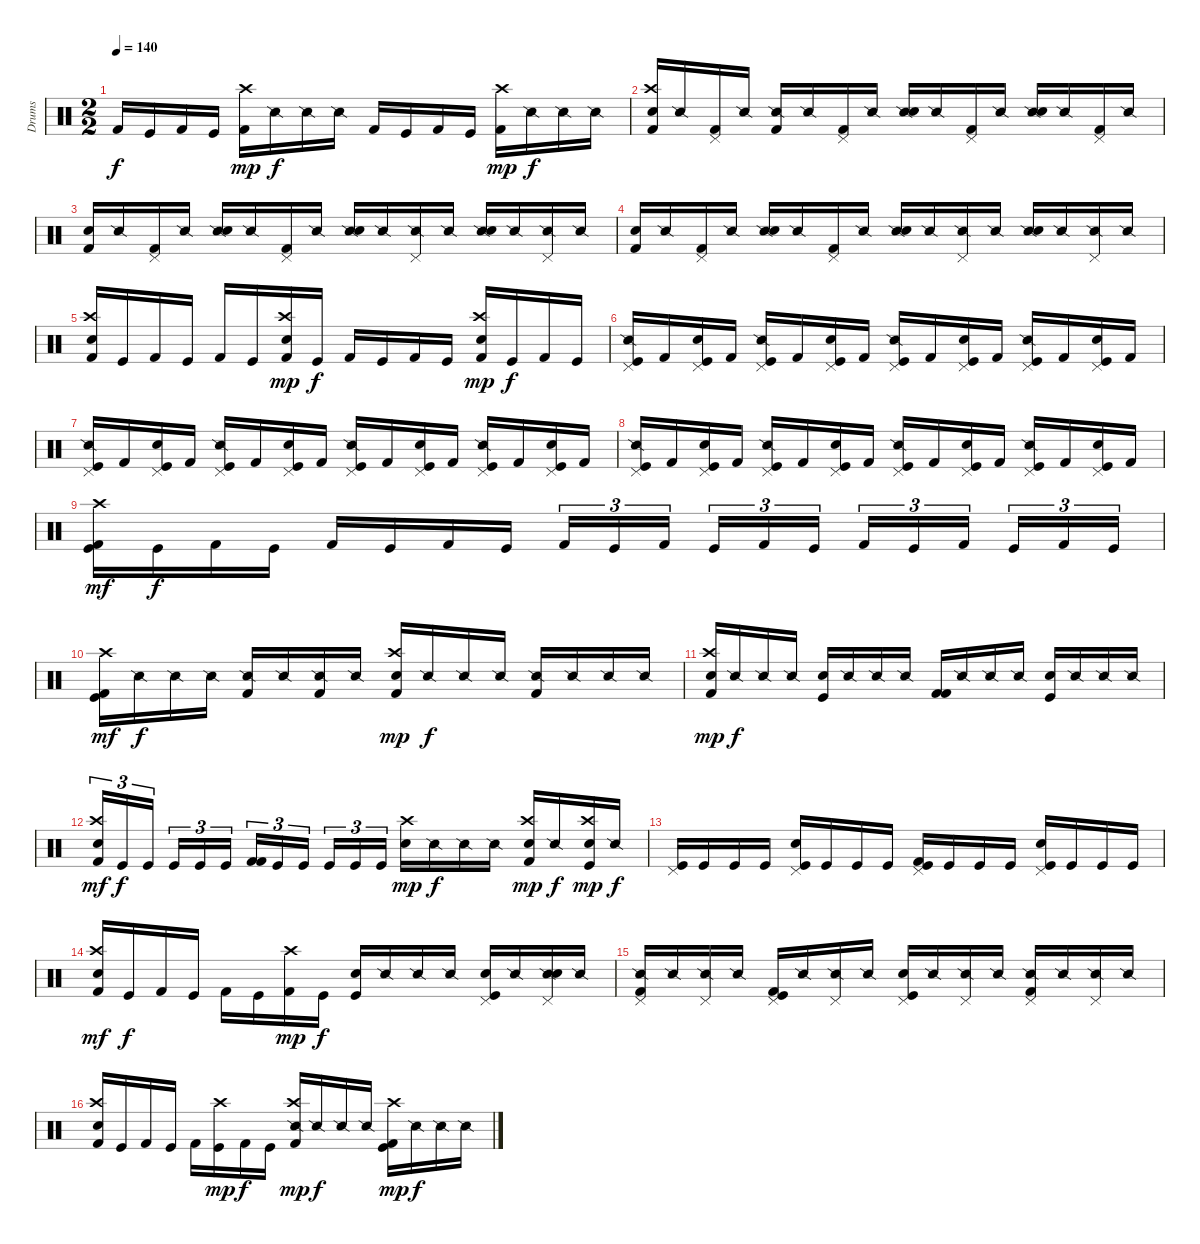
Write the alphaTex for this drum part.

\track ("Drums" "Drums") {instrument percussion}
\staff {score}
\articulation defaults
\ts (2 2)
\tempo 140
\clef neutral
\ks c "Kick (hit) 2".16{dy f} "Kick (hit)".16 "Kick (hit) 2".16 "Kick (hit)".16
("Kick (hit) 2" "Crash high (hit)").16{dy mp} "Snare (side stick) 2".16{dy f} "Snare (side stick) 2".16 "Snare (side stick) 2".16 "Kick (hit) 2".16 "Kick (hit)".16 "Kick (hit) 2".16 "Kick (hit)".16 ("Kick (hit) 2" "Crash high (hit)").16{dy mp} "Snare (side stick) 2".16{dy f} "Snare (side stick) 2".16 "Snare (side stick) 2".16 |
("Kick (hit) 2" "Snare (hit) 2" "Crash high (hit)").16 "Snare (side stick) 2".16 ("Kick (hit) 2" "Pedal Hi-Hat (hit)").16 "Snare (side stick) 2".16 ("Snare (side stick) 2" "Kick (hit) 2").16 "Snare (side stick) 2".16 ("Kick (hit) 2" "Pedal Hi-Hat (hit)").16 "Snare (side stick) 2".16 ("Snare (side stick) 2" "Snare (hit) 2").16 "Snare (side stick) 2".16 ("Kick (hit) 2" "Pedal Hi-Hat (hit)").16 "Snare (side stick) 2".16 ("Snare (side stick) 2" "Snare (hit) 2").16 "Snare (side stick) 2".16 ("Kick (hit) 2" "Pedal Hi-Hat (hit)").16 "Snare (side stick) 2".16 |
("Kick (hit) 2" "Snare (hit) 2").16 "Snare (side stick) 2".16 ("Kick (hit) 2" "Pedal Hi-Hat (hit)").16 "Snare (side stick) 2".16 ("Snare (side stick) 2" "Snare (hit) 2").16 "Snare (side stick) 2".16 ("Kick (hit) 2" "Pedal Hi-Hat (hit)").16 "Snare (side stick) 2".16 ("Snare (side stick) 2" "Snare (hit) 2").16 "Snare (side stick) 2".16 ("Snare (side stick) 2" "Pedal Hi-Hat (hit)").16 "Snare (side stick) 2".16 ("Snare (side stick) 2" "Snare (hit) 2").16 "Snare (side stick) 2".16 ("Snare (side stick) 2" "Pedal Hi-Hat (hit)").16 "Snare (side stick) 2".16 |
("Kick (hit) 2" "Snare (hit) 2").16 "Snare (side stick) 2".16 ("Kick (hit) 2" "Pedal Hi-Hat (hit)").16 "Snare (side stick) 2".16 ("Snare (side stick) 2" "Snare (hit) 2").16 "Snare (side stick) 2".16 ("Kick (hit) 2" "Pedal Hi-Hat (hit)").16 "Snare (side stick) 2".16 ("Snare (side stick) 2" "Snare (hit) 2").16 "Snare (side stick) 2".16 ("Snare (side stick) 2" "Pedal Hi-Hat (hit)").16 "Snare (side stick) 2".16 ("Snare (side stick) 2" "Snare (hit) 2").16 "Snare (side stick) 2".16 ("Snare (side stick) 2" "Pedal Hi-Hat (hit)").16 "Snare (side stick) 2".16 |
("Kick (hit) 2" "Snare (hit) 2" "Crash high (hit)").16 "Kick (hit)".16 "Kick (hit) 2".16 "Kick (hit)".16 "Kick (hit) 2".16 "Kick (hit)".16 ("Kick (hit) 2" "Snare (hit) 2" "Crash high (hit)").16{dy mp} "Kick (hit)".16{dy f} "Kick (hit) 2".16 "Kick (hit)".16 "Kick (hit) 2".16 "Kick (hit)".16 ("Kick (hit) 2" "Snare (hit) 2" "Crash high (hit)").16{dy mp} "Kick (hit)".16{dy f} "Kick (hit) 2".16 "Kick (hit)".16 |
("Snare (side stick) 2" "Kick (hit)" "Pedal Hi-Hat (hit)").16 "Kick (hit) 2".16 ("Kick (hit)" "Snare (hit) 2" "Pedal Hi-Hat (hit)").16 "Kick (hit) 2".16 ("Snare (side stick) 2" "Kick (hit)" "Pedal Hi-Hat (hit)").16 "Kick (hit) 2".16 ("Kick (hit)" "Snare (hit) 2" "Pedal Hi-Hat (hit)").16 "Kick (hit) 2".16 ("Snare (side stick) 2" "Kick (hit)" "Pedal Hi-Hat (hit)").16 "Kick (hit) 2".16 ("Kick (hit)" "Snare (hit) 2" "Pedal Hi-Hat (hit)").16 "Kick (hit) 2".16 ("Snare (side stick) 2" "Kick (hit)" "Pedal Hi-Hat (hit)").16 "Kick (hit) 2".16 ("Kick (hit)" "Snare (hit) 2" "Pedal Hi-Hat (hit)").16 "Kick (hit) 2".16 |
("Snare (side stick) 2" "Kick (hit)" "Pedal Hi-Hat (hit)").16 "Kick (hit) 2".16 ("Kick (hit)" "Snare (hit) 2" "Pedal Hi-Hat (hit)").16 "Kick (hit) 2".16 ("Snare (side stick) 2" "Kick (hit)" "Pedal Hi-Hat (hit)").16 "Kick (hit) 2".16 ("Kick (hit)" "Snare (hit) 2" "Pedal Hi-Hat (hit)").16 "Kick (hit) 2".16 ("Snare (side stick) 2" "Kick (hit)" "Pedal Hi-Hat (hit)").16 "Kick (hit) 2".16 ("Kick (hit)" "Snare (hit) 2" "Pedal Hi-Hat (hit)").16 "Kick (hit) 2".16 ("Snare (side stick) 2" "Kick (hit)" "Pedal Hi-Hat (hit)").16 "Kick (hit) 2".16 ("Kick (hit)" "Snare (hit) 2" "Pedal Hi-Hat (hit)").16 "Kick (hit) 2".16 |
("Snare (side stick) 2" "Kick (hit)" "Pedal Hi-Hat (hit)").16 "Kick (hit) 2".16 ("Kick (hit)" "Snare (hit) 2" "Pedal Hi-Hat (hit)").16 "Kick (hit) 2".16 ("Snare (side stick) 2" "Kick (hit)" "Pedal Hi-Hat (hit)").16 "Kick (hit) 2".16 ("Kick (hit)" "Snare (hit) 2" "Pedal Hi-Hat (hit)").16 "Kick (hit) 2".16 ("Snare (side stick) 2" "Kick (hit)" "Pedal Hi-Hat (hit)").16 "Kick (hit) 2".16 ("Kick (hit)" "Snare (hit) 2" "Pedal Hi-Hat (hit)").16 "Kick (hit) 2".16 ("Snare (side stick) 2" "Kick (hit)" "Pedal Hi-Hat (hit)").16 "Kick (hit) 2".16 ("Kick (hit)" "Snare (hit) 2" "Pedal Hi-Hat (hit)").16 "Kick (hit) 2".16 |
("Kick (hit) 2" "Kick (hit)" "Crash high (hit)").16{dy mf} "Kick (hit)".16{dy f} "Kick (hit) 2".16 "Kick (hit)".16 "Kick (hit) 2".16 "Kick (hit)".16 "Kick (hit) 2".16 "Kick (hit)".16 "Kick (hit) 2".16{tu (3 2)} "Kick (hit)".16{tu (3 2)} "Kick (hit) 2".16{tu (3 2)} "Kick (hit)".16{tu (3 2)} "Kick (hit) 2".16{tu (3 2)} "Kick (hit)".16{tu (3 2)} "Kick (hit) 2".16{tu (3 2)} "Kick (hit)".16{tu (3 2)} "Kick (hit) 2".16{tu (3 2)} "Kick (hit)".16{tu (3 2)} "Kick (hit) 2".16{tu (3 2)} "Kick (hit)".16{tu (3 2)} |
("Kick (hit) 2" "Kick (hit)" "Crash high (hit)").16{dy mf} "Snare (side stick) 2".16{dy f} "Snare (side stick) 2".16 "Snare (side stick) 2".16 ("Snare (side stick) 2" "Kick (hit) 2").16 "Snare (side stick) 2".16 ("Snare (side stick) 2" "Kick (hit) 2").16 "Snare (side stick) 2".16 ("Snare (hit) 2" "Kick (hit) 2" "Crash high (hit)").16{dy mp} "Snare (side stick) 2".16{dy f} "Snare (side stick) 2".16 "Snare (side stick) 2".16 ("Snare (side stick) 2" "Kick (hit) 2").16 "Snare (side stick) 2".16 "Snare (side stick) 2".16 "Snare (side stick) 2".16 |
("Snare (hit) 2" "Kick (hit) 2" "Crash high (hit)").16{dy mp} "Snare (side stick) 2".16{dy f} "Snare (side stick) 2".16 "Snare (side stick) 2".16 ("Kick (hit)" "Snare (hit) 2").16 "Snare (side stick) 2".16 "Snare (side stick) 2".16 "Snare (side stick) 2".16 ("Kick (hit) 2" "Kick (hit) 2").16 "Snare (side stick) 2".16 "Snare (side stick) 2".16 "Snare (side stick) 2".16 ("Kick (hit)" "Snare (hit) 2").16 "Snare (side stick) 2".16 "Snare (side stick) 2".16 "Snare (side stick) 2".16 |
("Kick (hit) 2" "Snare (hit) 2" "Crash high (hit)").16{tu (3 2) dy mf} "Kick (hit)".16{tu (3 2) dy f} "Kick (hit)".16{tu (3 2)} "Kick (hit)".16{tu (3 2)} "Kick (hit)".16{tu (3 2)} "Kick (hit)".16{tu (3 2)} ("Kick (hit) 2" "Kick (hit) 2").16{tu (3 2)} "Kick (hit)".16{tu (3 2)} "Kick (hit)".16{tu (3 2)} "Kick (hit)".16{tu (3 2)} "Kick (hit)".16{tu (3 2)} "Kick (hit)".16{tu (3 2)} ("Snare (hit) 2" "Crash high (hit)").16{dy mp} "Snare (side stick) 2".16{dy f} "Snare (side stick) 2".16 "Snare (side stick) 2".16 ("Kick (hit) 2" "Snare (hit) 2" "Crash high (hit)").16{dy mp} "Snare (side stick) 2".16{dy f} ("Kick (hit)" "Snare (hit) 2" "Crash high (hit)").16{dy mp} "Snare (side stick) 2".16{dy f} |
("Kick (hit)" "Pedal Hi-Hat (hit)").16 "Kick (hit)".16 "Kick (hit)".16 "Kick (hit)".16 ("Kick (hit)" "Snare (hit) 2" "Pedal Hi-Hat (hit)").16 "Kick (hit)".16 "Kick (hit)".16 "Kick (hit)".16 ("Kick (hit)" "Kick (hit) 2" "Pedal Hi-Hat (hit)").16 "Kick (hit)".16 "Kick (hit)".16 "Kick (hit)".16 ("Kick (hit)" "Snare (hit) 2" "Pedal Hi-Hat (hit)").16 "Kick (hit)".16 "Kick (hit)".16 "Kick (hit)".16 |
("Kick (hit) 2" "Snare (hit) 2" "Crash high (hit)").16{dy mf} "Kick (hit)".16{dy f} "Kick (hit) 2".16 "Kick (hit)".16 "Kick (hit) 2".16 "Kick (hit)".16 ("Kick (hit) 2" "Crash high (hit)").16{dy mp} "Kick (hit)".16{dy f} ("Kick (hit)" "Snare (hit) 2").16 "Snare (side stick) 2".16 "Snare (side stick) 2".16 "Snare (side stick) 2".16 ("Kick (hit)" "Snare (hit) 2" "Pedal Hi-Hat (hit)").16 "Snare (side stick) 2".16 ("Snare (side stick) 2" "Snare (hit) 2" "Pedal Hi-Hat (hit)").16 "Snare (side stick) 2".16 |
("Snare (side stick) 2" "Kick (hit) 2" "Pedal Hi-Hat (hit)").16 "Snare (side stick) 2".16 ("Snare (side stick) 2" "Pedal Hi-Hat (hit)").16 "Snare (side stick) 2".16 ("Kick (hit)" "Kick (hit) 2" "Pedal Hi-Hat (hit)").16 "Snare (side stick) 2".16 ("Snare (side stick) 2" "Pedal Hi-Hat (hit)").16 "Snare (side stick) 2".16 ("Kick (hit)" "Snare (hit) 2" "Pedal Hi-Hat (hit)").16 "Snare (side stick) 2".16 ("Snare (side stick) 2" "Pedal Hi-Hat (hit)").16 "Snare (side stick) 2".16 ("Snare (side stick) 2" "Kick (hit) 2" "Pedal Hi-Hat (hit)").16 "Snare (side stick) 2".16 ("Snare (side stick) 2" "Pedal Hi-Hat (hit)").16 "Snare (side stick) 2".16 |
("Kick (hit) 2" "Snare (hit) 2" "Crash high (hit)").16 "Kick (hit)".16 "Kick (hit) 2".16 "Kick (hit)".16 "Kick (hit) 2".16 ("Kick (hit)" "Crash high (hit)").16{dy mp} "Kick (hit) 2".16{dy f} "Kick (hit)".16 ("Snare (side stick) 2" "Kick (hit) 2" "Crash high (hit)").16{dy mp} "Snare (side stick) 2".16{dy f} "Snare (side stick) 2".16 "Snare (side stick) 2".16 ("Kick (hit)" "Kick (hit) 2" "Crash high (hit)").16{dy mp} "Snare (side stick) 2".16{dy f} "Snare (side stick) 2".16 "Snare (side stick) 2".16
